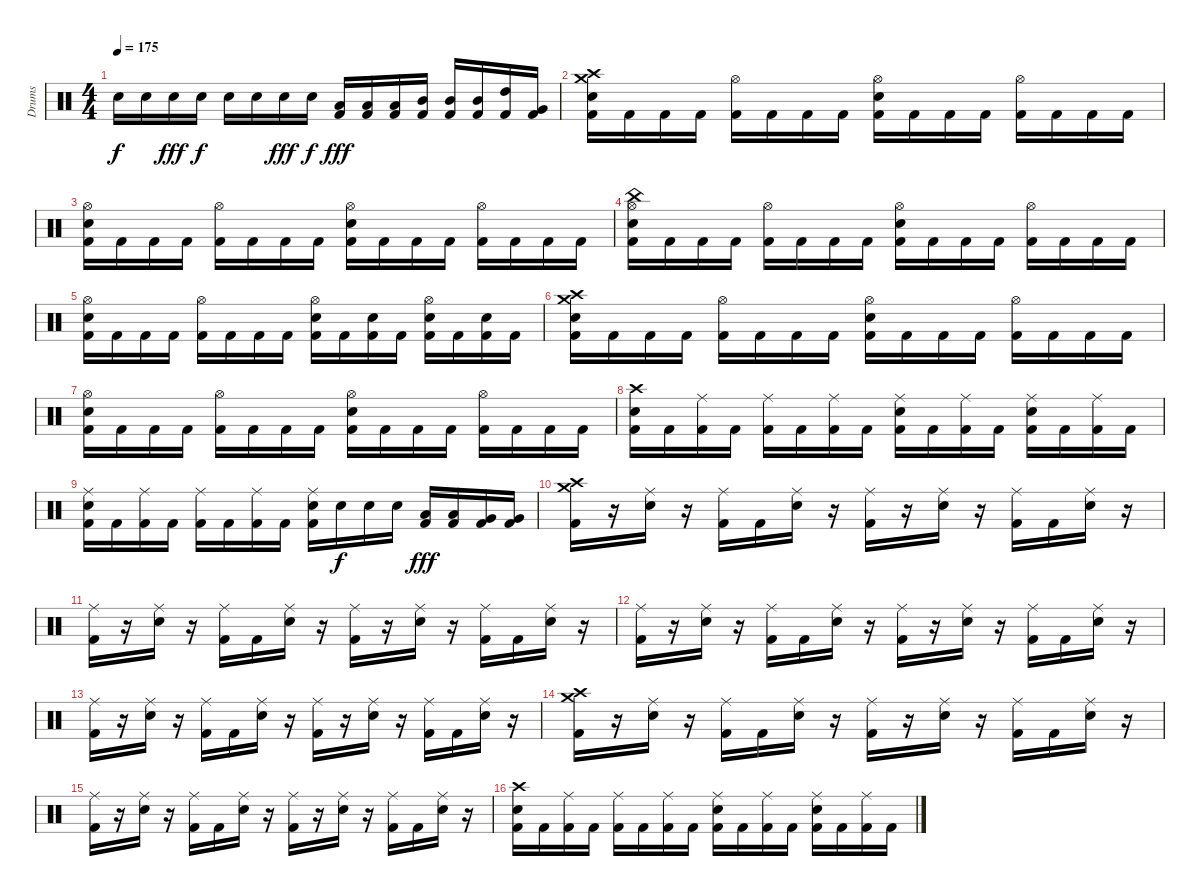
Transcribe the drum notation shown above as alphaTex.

\track ("Drums" "Drums") {instrument percussion}
\staff {score}
\articulation defaults
\ts (4 4)
\tempo 175
\clef neutral
\ks c "Electric Snare (hit)".16{dy f} "Electric Snare (hit)".16 "Electric Snare (hit)".16{dy fff} "Electric Snare (hit)".16{dy f} "Electric Snare (hit)".16 "Electric Snare (hit)".16 "Electric Snare (hit)".16{dy fff} "Electric Snare (hit)".16{dy f}
("Low Tom (hit)" "Kick (hit) 2").16{dy fff} ("Low Tom (hit)" "Kick (hit) 2").16 ("Low Tom (hit)" "Kick (hit) 2").16 ("Mid Tom (hit)" "Kick (hit) 2").16 ("Mid Tom (hit)" "Kick (hit) 2").16 ("Mid Tom (hit)" "Kick (hit) 2").16 ("High Tom (hit)" "Kick (hit) 2").16 ("Very Low Tom (hit)" "Kick (hit) 2").16 |
("Crash medium (hit)" "Crash high (hit)" "Electric Snare (hit)" "Kick (hit) 2").16 "Kick (hit) 2".16 "Kick (hit) 2".16 "Kick (hit) 2".16 ("Hi-Hat (open)" "Kick (hit) 2").16 "Kick (hit) 2".16 "Kick (hit) 2".16 "Kick (hit) 2".16 ("Hi-Hat (open)" "Electric Snare (hit)" "Kick (hit) 2").16 "Kick (hit) 2".16 "Kick (hit) 2".16 "Kick (hit) 2".16 ("Hi-Hat (open)" "Kick (hit) 2").16 "Kick (hit) 2".16 "Kick (hit) 2".16 "Kick (hit) 2".16 |
("Hi-Hat (open)" "Electric Snare (hit)" "Kick (hit) 2").16 "Kick (hit) 2".16 "Kick (hit) 2".16 "Kick (hit) 2".16 ("Hi-Hat (open)" "Kick (hit) 2").16 "Kick (hit) 2".16 "Kick (hit) 2".16 "Kick (hit) 2".16 ("Hi-Hat (open)" "Electric Snare (hit)" "Kick (hit) 2").16 "Kick (hit) 2".16 "Kick (hit) 2".16 "Kick (hit) 2".16 ("Hi-Hat (open)" "Kick (hit) 2").16 "Kick (hit) 2".16 "Kick (hit) 2".16 "Kick (hit) 2".16 |
("Hi-Hat (open)" "China (hit)" "Electric Snare (hit)" "Kick (hit) 2").16 "Kick (hit) 2".16 "Kick (hit) 2".16 "Kick (hit) 2".16 ("Hi-Hat (open)" "Kick (hit) 2").16 "Kick (hit) 2".16 "Kick (hit) 2".16 "Kick (hit) 2".16 ("Hi-Hat (open)" "Electric Snare (hit)" "Kick (hit) 2").16 "Kick (hit) 2".16 "Kick (hit) 2".16 "Kick (hit) 2".16 ("Hi-Hat (open)" "Kick (hit) 2").16 "Kick (hit) 2".16 "Kick (hit) 2".16 "Kick (hit) 2".16 |
("Hi-Hat (open)" "Electric Snare (hit)" "Kick (hit) 2").16 "Kick (hit) 2".16 "Kick (hit) 2".16 "Kick (hit) 2".16 ("Hi-Hat (open)" "Kick (hit) 2").16 "Kick (hit) 2".16 "Kick (hit) 2".16 "Kick (hit) 2".16 ("Hi-Hat (open)" "Electric Snare (hit)" "Kick (hit) 2").16 "Kick (hit) 2".16 ("Electric Snare (hit)" "Kick (hit) 2").16 "Kick (hit) 2".16 ("Hi-Hat (open)" "Electric Snare (hit)" "Kick (hit) 2").16 "Kick (hit) 2".16 ("Electric Snare (hit)" "Kick (hit) 2").16 "Kick (hit) 2".16 |
("Crash medium (hit)" "Crash high (hit)" "Electric Snare (hit)" "Kick (hit) 2").16 "Kick (hit) 2".16 "Kick (hit) 2".16 "Kick (hit) 2".16 ("Hi-Hat (open)" "Kick (hit) 2").16 "Kick (hit) 2".16 "Kick (hit) 2".16 "Kick (hit) 2".16 ("Hi-Hat (open)" "Electric Snare (hit)" "Kick (hit) 2").16 "Kick (hit) 2".16 "Kick (hit) 2".16 "Kick (hit) 2".16 ("Hi-Hat (open)" "Kick (hit) 2").16 "Kick (hit) 2".16 "Kick (hit) 2".16 "Kick (hit) 2".16 |
("Hi-Hat (open)" "Electric Snare (hit)" "Kick (hit) 2").16 "Kick (hit) 2".16 "Kick (hit) 2".16 "Kick (hit) 2".16 ("Hi-Hat (open)" "Kick (hit) 2").16 "Kick (hit) 2".16 "Kick (hit) 2".16 "Kick (hit) 2".16 ("Hi-Hat (open)" "Electric Snare (hit)" "Kick (hit) 2").16 "Kick (hit) 2".16 "Kick (hit) 2".16 "Kick (hit) 2".16 ("Hi-Hat (open)" "Kick (hit) 2").16 "Kick (hit) 2".16 "Kick (hit) 2".16 "Kick (hit) 2".16 |
("Crash high (hit)" "Electric Snare (hit)" "Kick (hit) 2").16 "Kick (hit) 2".16 ("Ride (middle)" "Kick (hit) 2").16 "Kick (hit) 2".16 ("Ride (middle)" "Kick (hit) 2").16 "Kick (hit) 2".16 ("Ride (middle)" "Kick (hit) 2").16 "Kick (hit) 2".16 ("Ride (middle)" "Electric Snare (hit)" "Kick (hit) 2").16 "Kick (hit) 2".16 ("Ride (middle)" "Kick (hit) 2").16 "Kick (hit) 2".16 ("Ride (middle)" "Electric Snare (hit)" "Kick (hit) 2").16 "Kick (hit) 2".16 ("Ride (middle)" "Kick (hit) 2").16 "Kick (hit) 2".16 |
("Ride (middle)" "Electric Snare (hit)" "Kick (hit) 2").16 "Kick (hit) 2".16 ("Ride (middle)" "Kick (hit) 2").16 "Kick (hit) 2".16 ("Ride (middle)" "Kick (hit) 2").16 "Kick (hit) 2".16 ("Ride (middle)" "Kick (hit) 2").16 "Kick (hit) 2".16 ("Ride (middle)" "Electric Snare (hit)" "Kick (hit) 2").16 "Electric Snare (hit)".16{dy f} "Electric Snare (hit)".16 "Electric Snare (hit)".16 ("Low Tom (hit)" "Kick (hit) 2").16{dy fff} ("Low Tom (hit)" "Kick (hit) 2").16 ("Very Low Tom (hit)" "Kick (hit) 2").16 ("Very Low Tom (hit)" "Kick (hit) 2").16 |
("Crash medium (hit)" "Crash high (hit)" "Kick (hit) 2").16 r.16 ("Ride (middle)" "Electric Snare (hit)").16 r.16 ("Ride (middle)" "Kick (hit) 2").16 "Kick (hit) 2".16 ("Ride (middle)" "Electric Snare (hit)").16 r.16 ("Ride (middle)" "Kick (hit) 2").16 r.16 ("Ride (middle)" "Electric Snare (hit)").16 r.16 ("Ride (middle)" "Kick (hit) 2").16 "Kick (hit) 2".16 ("Ride (middle)" "Electric Snare (hit)").16 r.16 |
("Ride (middle)" "Kick (hit) 2").16 r.16 ("Ride (middle)" "Electric Snare (hit)").16 r.16 ("Ride (middle)" "Kick (hit) 2").16 "Kick (hit) 2".16 ("Ride (middle)" "Electric Snare (hit)").16 r.16 ("Ride (middle)" "Kick (hit) 2").16 r.16 ("Ride (middle)" "Electric Snare (hit)").16 r.16 ("Ride (middle)" "Kick (hit) 2").16 "Kick (hit) 2".16 ("Ride (middle)" "Electric Snare (hit)").16 r.16 |
("Ride (middle)" "Kick (hit) 2").16 r.16 ("Ride (middle)" "Electric Snare (hit)").16 r.16 ("Ride (middle)" "Kick (hit) 2").16 "Kick (hit) 2".16 ("Ride (middle)" "Electric Snare (hit)").16 r.16 ("Ride (middle)" "Kick (hit) 2").16 r.16 ("Ride (middle)" "Electric Snare (hit)").16 r.16 ("Ride (middle)" "Kick (hit) 2").16 "Kick (hit) 2".16 ("Ride (middle)" "Electric Snare (hit)").16 r.16 |
("Ride (middle)" "Kick (hit) 2").16 r.16 ("Ride (middle)" "Electric Snare (hit)").16 r.16 ("Ride (middle)" "Kick (hit) 2").16 "Kick (hit) 2".16 ("Ride (middle)" "Electric Snare (hit)").16 r.16 ("Ride (middle)" "Kick (hit) 2").16 r.16 ("Ride (middle)" "Electric Snare (hit)").16 r.16 ("Ride (middle)" "Kick (hit) 2").16 "Kick (hit) 2".16 ("Ride (middle)" "Electric Snare (hit)").16 r.16 |
("Crash medium (hit)" "Crash high (hit)" "Kick (hit) 2").16 r.16 ("Ride (middle)" "Electric Snare (hit)").16 r.16 ("Ride (middle)" "Kick (hit) 2").16 "Kick (hit) 2".16 ("Ride (middle)" "Electric Snare (hit)").16 r.16 ("Ride (middle)" "Kick (hit) 2").16 r.16 ("Ride (middle)" "Electric Snare (hit)").16 r.16 ("Ride (middle)" "Kick (hit) 2").16 "Kick (hit) 2".16 ("Ride (middle)" "Electric Snare (hit)").16 r.16 |
("Ride (middle)" "Kick (hit) 2").16 r.16 ("Ride (middle)" "Electric Snare (hit)").16 r.16 ("Ride (middle)" "Kick (hit) 2").16 "Kick (hit) 2".16 ("Ride (middle)" "Electric Snare (hit)").16 r.16 ("Ride (middle)" "Kick (hit) 2").16 r.16 ("Ride (middle)" "Electric Snare (hit)").16 r.16 ("Ride (middle)" "Kick (hit) 2").16 "Kick (hit) 2".16 ("Ride (middle)" "Electric Snare (hit)").16 r.16 |
("Crash high (hit)" "Electric Snare (hit)" "Kick (hit) 2").16 "Kick (hit) 2".16 ("Ride (middle)" "Kick (hit) 2").16 "Kick (hit) 2".16 ("Ride (middle)" "Kick (hit) 2").16 "Kick (hit) 2".16 ("Ride (middle)" "Kick (hit) 2").16 "Kick (hit) 2".16 ("Ride (middle)" "Electric Snare (hit)" "Kick (hit) 2").16 "Kick (hit) 2".16 ("Ride (middle)" "Kick (hit) 2").16 "Kick (hit) 2".16 ("Ride (middle)" "Electric Snare (hit)" "Kick (hit) 2").16 "Kick (hit) 2".16 ("Ride (middle)" "Kick (hit) 2").16 "Kick (hit) 2".16
